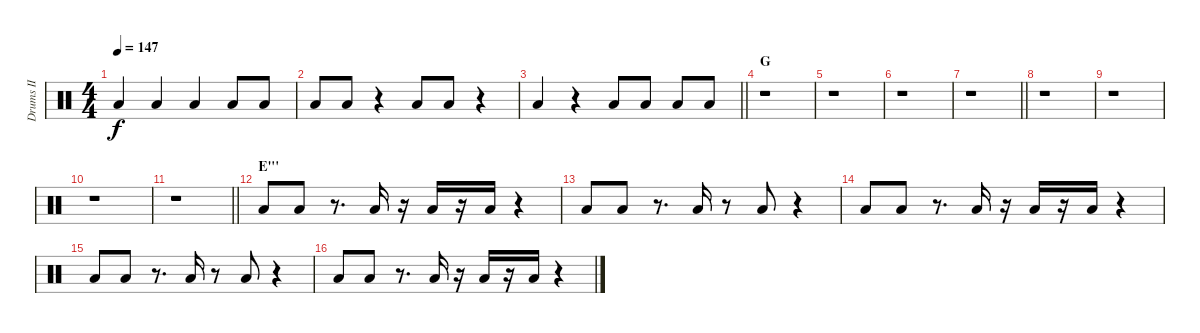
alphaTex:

\track ("Drums II" "Drums II") {instrument percussion}
\staff {score}
\articulation defaults
\ts (4 4)
\tempo 147
\clef neutral
\ks c "Low Tom (hit)".4{dy f} "Low Tom (hit)".4 "Low Tom (hit)".4 "Low Tom (hit)".8 "Low Tom (hit)".8
|
"Low Tom (hit)".8 "Low Tom (hit)".8 r.4 "Low Tom (hit)".8 "Low Tom (hit)".8 r.4 |
\barLineRight lightlight "Low Tom (hit)".4
r.4 "Low Tom (hit)".8 "Low Tom (hit)".8 "Low Tom (hit)".8 "Low Tom (hit)".8 |
\section ("" "G")
r.1 |
r.1 |
r.1 |
\barLineRight lightlight
r.1 |
\section ("" "")
r.1 |
r.1 |
r.1 |
\barLineRight lightlight
r.1 |
\section ("" "E\"'")
"Low Tom (hit)".8 "Low Tom (hit)".8 r.8{d} "Low Tom (hit)".16 r.16 "Low Tom (hit)".16 r.16 "Low Tom (hit)".16 r.4 |
"Low Tom (hit)".8 "Low Tom (hit)".8 r.8{d} "Low Tom (hit)".16 r.8 "Low Tom (hit)".8 r.4 |
"Low Tom (hit)".8 "Low Tom (hit)".8 r.8{d} "Low Tom (hit)".16 r.16 "Low Tom (hit)".16 r.16 "Low Tom (hit)".16 r.4 |
"Low Tom (hit)".8 "Low Tom (hit)".8 r.8{d} "Low Tom (hit)".16 r.8 "Low Tom (hit)".8 r.4 |
"Low Tom (hit)".8 "Low Tom (hit)".8 r.8{d} "Low Tom (hit)".16 r.16 "Low Tom (hit)".16 r.16 "Low Tom (hit)".16 r.4
